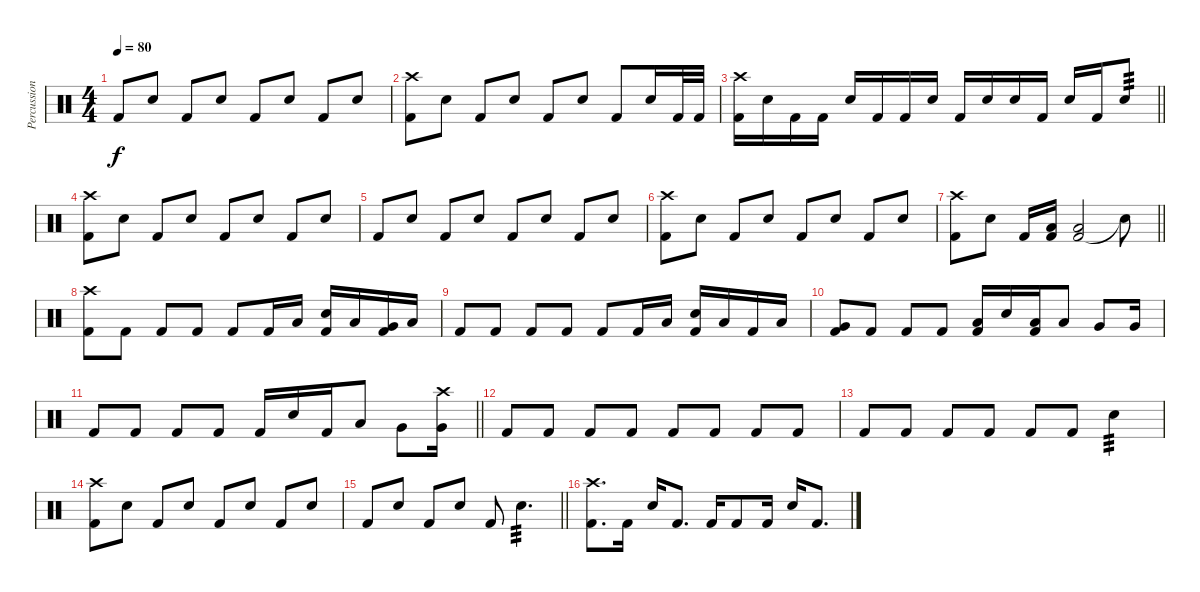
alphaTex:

\track ("Percussion" "Percussion") {instrument percussion}
\staff {score}
\articulation defaults
\ts (4 4)
\tempo 80
\clef neutral
\ks c "Kick (hit) 2".8{dy f} "Snare (hit) 2".8 "Kick (hit) 2".8 "Snare (hit) 2".8 "Kick (hit) 2".8 "Snare (hit) 2".8 "Kick (hit) 2".8 "Snare (hit) 2".8
|
("Kick (hit) 2" "Crash high (hit)").8 "Snare (hit) 2".8 "Kick (hit) 2".8 "Snare (hit) 2".8 "Kick (hit) 2".8 "Snare (hit) 2".8 "Kick (hit) 2".8 "Snare (hit) 2".16 "Kick (hit) 2".32 "Kick (hit) 2".32 |
\barLineRight lightlight
("Kick (hit) 2" "Crash high (hit)").16 "Electric Snare (hit)".16 "Kick (hit) 2".16 "Kick (hit) 2".16 "Electric Snare (hit)".16 "Kick (hit) 2".16 "Kick (hit) 2".16 "Electric Snare (hit)".16 "Kick (hit) 2".16 "Electric Snare (hit)".16 "Electric Snare (hit)".16 "Kick (hit) 2".16 "Electric Snare (hit)".16 "Kick (hit) 2".16 "Electric Snare (hit)".8{tp 3} |
("Kick (hit) 2" "Crash high (hit)").8 "Snare (hit) 2".8 "Kick (hit) 2".8 "Snare (hit) 2".8 "Kick (hit) 2".8 "Snare (hit) 2".8 "Kick (hit) 2".8 "Snare (hit) 2".8 |
"Kick (hit) 2".8 "Snare (hit) 2".8 "Kick (hit) 2".8 "Snare (hit) 2".8 "Kick (hit) 2".8 "Snare (hit) 2".8 "Kick (hit) 2".8 "Snare (hit) 2".8 |
("Kick (hit) 2" "Crash high (hit)").8 "Snare (hit) 2".8 "Kick (hit) 2".8 "Snare (hit) 2".8 "Kick (hit) 2".8 "Snare (hit) 2".8 "Kick (hit) 2".8 "Snare (hit) 2".8 |
\barLineRight lightlight
("Kick (hit) 2" "Crash high (hit)").8 "Snare (hit) 2".8 "Kick (hit) 2".16 ("Kick (hit) 2" "Low Tom (hit)").16 ("Kick (hit) 2" "Low Tom (hit)").2 "Snare (hit)"{t}.8 |
("Kick (hit) 2" "Crash high (hit)").8 "Kick (hit) 2".8 "Kick (hit) 2".8 "Kick (hit) 2".8 "Kick (hit) 2".8 "Kick (hit) 2".16 "Low Tom (hit)".16 ("Kick (hit) 2" "Snare (hit) 2").16 "Low Tom (hit)".16 ("Kick (hit) 2" "Very Low Tom (hit)").16 "Low Tom (hit)".16 |
"Kick (hit) 2".8 "Kick (hit) 2".8 "Kick (hit) 2".8 "Kick (hit) 2".8 "Kick (hit) 2".8 "Kick (hit) 2".16 "Low Tom (hit)".16 ("Kick (hit) 2" "Snare (hit) 2").16 "Low Tom (hit)".16 "Kick (hit) 2".16 "Low Tom (hit)".16 |
("Kick (hit) 2" "Very Low Tom (hit)").8 "Kick (hit) 2".8 "Kick (hit) 2".8 "Kick (hit) 2".8 ("Kick (hit) 2" "Low Tom (hit)").16 "Snare (hit) 2".16 ("Kick (hit) 2" "Low Tom (hit)").16 "Low Tom (hit)".8 "Very Low Tom (hit)".8 "Very Low Tom (hit)".16 |
\barLineRight lightlight "Kick (hit) 2".8 "Kick (hit) 2".8 "Kick (hit) 2".8 "Kick (hit) 2".8 "Kick (hit) 2".16 "Snare (hit) 2".16 "Kick (hit) 2".16 "Low Tom (hit)".8 "Very Low Tom (hit)".8
("Very Low Tom (hit)" "Crash high (hit)").16 |
"Kick (hit) 2".8 "Kick (hit) 2".8 "Kick (hit) 2".8 "Kick (hit) 2".8 "Kick (hit) 2".8 "Kick (hit) 2".8 "Kick (hit) 2".8 "Kick (hit) 2".8 |
"Kick (hit) 2".8 "Kick (hit) 2".8 "Kick (hit) 2".8 "Kick (hit) 2".8 "Kick (hit) 2".8 "Kick (hit) 2".8 "Snare (hit) 2".4{tp 3} |
("Kick (hit) 2" "Crash high (hit)").8 "Snare (hit) 2".8 "Kick (hit) 2".8 "Snare (hit) 2".8 "Kick (hit) 2".8 "Snare (hit) 2".8 "Kick (hit) 2".8 "Snare (hit) 2".8 |
\barLineRight lightlight "Kick (hit) 2".8 "Snare (hit) 2".8 "Kick (hit) 2".8 "Snare (hit) 2".8 "Kick (hit) 2".8 "Snare (hit) 2".4{d tp 3}
|
("Kick (hit) 2" "Crash high (hit)").8{d} "Kick (hit) 2".16 "Snare (hit) 2".16 "Kick (hit) 2".8{d} "Kick (hit) 2".16 "Kick (hit) 2".8 "Kick (hit) 2".16 "Snare (hit) 2".16 "Kick (hit) 2".8{d}
